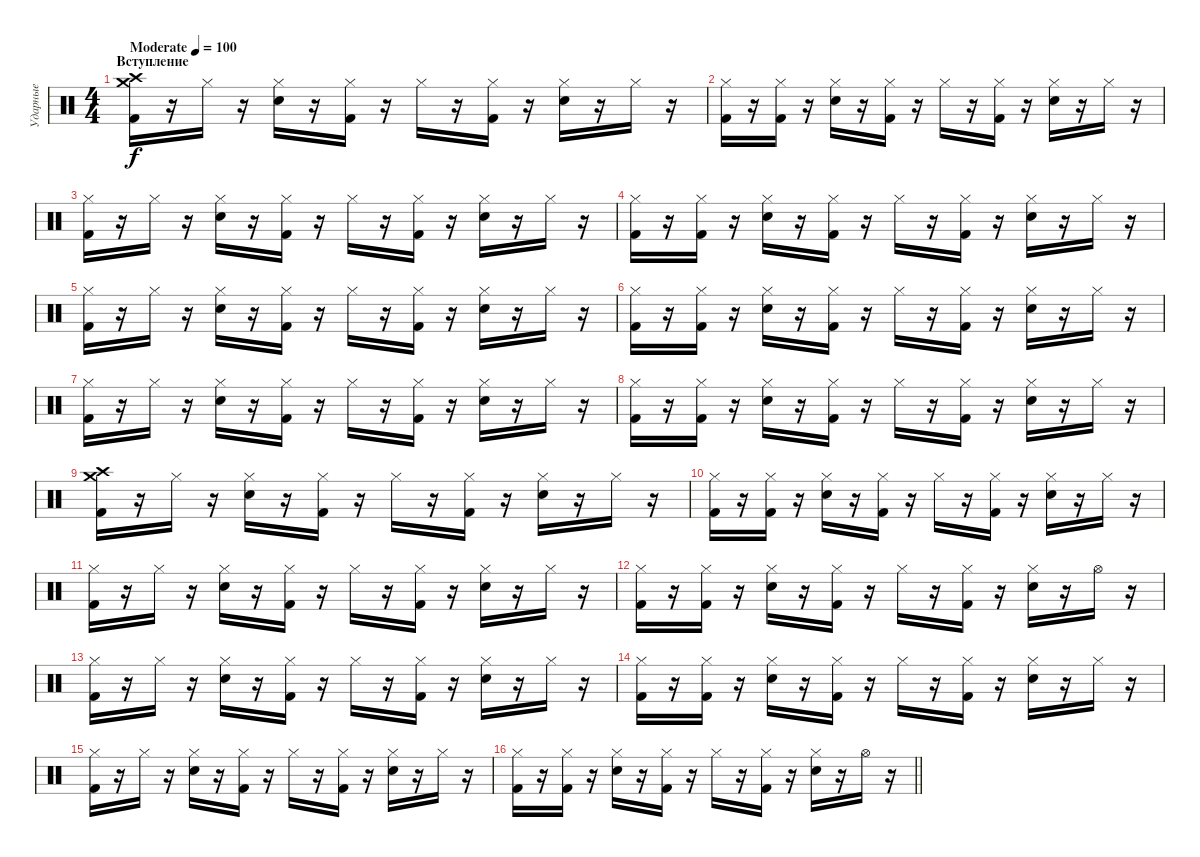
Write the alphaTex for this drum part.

\track ("Ударные" "Ударные") {instrument percussion}
\staff {score}
\articulation defaults
\ts (4 4)
\section ("" "Вступление")
\tempo (100 "Moderate")
\clef neutral
\ks c
("Crash high (hit)" "Crash medium (hit)" "Kick (hit) 2").16{dy f} r.16 "Hi-Hat (closed)".16 r.16 ("Hi-Hat (closed)" "Electric Snare (hit)").16 r.16 ("Hi-Hat (closed)" "Kick (hit) 2").16 r.16 "Hi-Hat (closed)".16 r.16 ("Hi-Hat (closed)" "Kick (hit) 2").16 r.16 ("Hi-Hat (closed)" "Electric Snare (hit)").16 r.16 "Hi-Hat (closed)".16 r.16 |
("Hi-Hat (closed)" "Kick (hit) 2").16 r.16 ("Hi-Hat (closed)" "Kick (hit) 2").16 r.16 ("Hi-Hat (closed)" "Electric Snare (hit)").16 r.16 ("Hi-Hat (closed)" "Kick (hit) 2").16 r.16 "Hi-Hat (closed)".16 r.16 ("Hi-Hat (closed)" "Kick (hit) 2").16 r.16 ("Hi-Hat (closed)" "Electric Snare (hit)").16 r.16 "Hi-Hat (closed)".16 r.16 |
("Hi-Hat (closed)" "Kick (hit) 2").16 r.16 "Hi-Hat (closed)".16 r.16 ("Hi-Hat (closed)" "Electric Snare (hit)").16 r.16 ("Hi-Hat (closed)" "Kick (hit) 2").16 r.16 "Hi-Hat (closed)".16 r.16 ("Hi-Hat (closed)" "Kick (hit) 2").16 r.16 ("Hi-Hat (closed)" "Electric Snare (hit)").16 r.16 "Hi-Hat (closed)".16 r.16 |
("Hi-Hat (closed)" "Kick (hit) 2").16 r.16 ("Hi-Hat (closed)" "Kick (hit) 2").16 r.16 ("Hi-Hat (closed)" "Electric Snare (hit)").16 r.16 ("Hi-Hat (closed)" "Kick (hit) 2").16 r.16 "Hi-Hat (closed)".16 r.16 ("Hi-Hat (closed)" "Kick (hit) 2").16 r.16 ("Hi-Hat (closed)" "Electric Snare (hit)").16 r.16 "Hi-Hat (closed)".16 r.16 |
("Hi-Hat (closed)" "Kick (hit) 2").16 r.16 "Hi-Hat (closed)".16 r.16 ("Hi-Hat (closed)" "Electric Snare (hit)").16 r.16 ("Hi-Hat (closed)" "Kick (hit) 2").16 r.16 "Hi-Hat (closed)".16 r.16 ("Hi-Hat (closed)" "Kick (hit) 2").16 r.16 ("Hi-Hat (closed)" "Electric Snare (hit)").16 r.16 "Hi-Hat (closed)".16 r.16 |
("Hi-Hat (closed)" "Kick (hit) 2").16 r.16 ("Hi-Hat (closed)" "Kick (hit) 2").16 r.16 ("Hi-Hat (closed)" "Electric Snare (hit)").16 r.16 ("Hi-Hat (closed)" "Kick (hit) 2").16 r.16 "Hi-Hat (closed)".16 r.16 ("Hi-Hat (closed)" "Kick (hit) 2").16 r.16 ("Hi-Hat (closed)" "Electric Snare (hit)").16 r.16 "Hi-Hat (closed)".16 r.16 |
("Hi-Hat (closed)" "Kick (hit) 2").16 r.16 "Hi-Hat (closed)".16 r.16 ("Hi-Hat (closed)" "Electric Snare (hit)").16 r.16 ("Hi-Hat (closed)" "Kick (hit) 2").16 r.16 "Hi-Hat (closed)".16 r.16 ("Hi-Hat (closed)" "Kick (hit) 2").16 r.16 ("Hi-Hat (closed)" "Electric Snare (hit)").16 r.16 "Hi-Hat (closed)".16 r.16 |
("Hi-Hat (closed)" "Kick (hit) 2").16 r.16 ("Hi-Hat (closed)" "Kick (hit) 2").16 r.16 ("Hi-Hat (closed)" "Electric Snare (hit)").16 r.16 ("Hi-Hat (closed)" "Kick (hit) 2").16 r.16 "Hi-Hat (closed)".16 r.16 ("Hi-Hat (closed)" "Kick (hit) 2").16 r.16 ("Hi-Hat (closed)" "Electric Snare (hit)").16 r.16 "Hi-Hat (closed)".16 r.16 |
("Crash high (hit)" "Crash medium (hit)" "Kick (hit) 2").16 r.16 "Hi-Hat (closed)".16 r.16 ("Hi-Hat (closed)" "Electric Snare (hit)").16 r.16 ("Hi-Hat (closed)" "Kick (hit) 2").16 r.16 "Hi-Hat (closed)".16 r.16 ("Hi-Hat (closed)" "Kick (hit) 2").16 r.16 ("Hi-Hat (closed)" "Electric Snare (hit)").16 r.16 "Hi-Hat (closed)".16 r.16 |
("Hi-Hat (closed)" "Kick (hit) 2").16 r.16 ("Hi-Hat (closed)" "Kick (hit) 2").16 r.16 ("Hi-Hat (closed)" "Electric Snare (hit)").16 r.16 ("Hi-Hat (closed)" "Kick (hit) 2").16 r.16 "Hi-Hat (closed)".16 r.16 ("Hi-Hat (closed)" "Kick (hit) 2").16 r.16 ("Hi-Hat (closed)" "Electric Snare (hit)").16 r.16 "Hi-Hat (closed)".16 r.16 |
("Hi-Hat (closed)" "Kick (hit) 2").16 r.16 "Hi-Hat (closed)".16 r.16 ("Hi-Hat (closed)" "Electric Snare (hit)").16 r.16 ("Hi-Hat (closed)" "Kick (hit) 2").16 r.16 "Hi-Hat (closed)".16 r.16 ("Hi-Hat (closed)" "Kick (hit) 2").16 r.16 ("Hi-Hat (closed)" "Electric Snare (hit)").16 r.16 "Hi-Hat (closed)".16 r.16 |
("Hi-Hat (closed)" "Kick (hit) 2").16 r.16 ("Hi-Hat (closed)" "Kick (hit) 2").16 r.16 ("Hi-Hat (closed)" "Electric Snare (hit)").16 r.16 ("Hi-Hat (closed)" "Kick (hit) 2").16 r.16 "Hi-Hat (closed)".16 r.16 ("Hi-Hat (closed)" "Kick (hit) 2").16 r.16 ("Hi-Hat (closed)" "Electric Snare (hit)").16 r.16 "Hi-Hat (open)".16 r.16 |
("Hi-Hat (closed)" "Kick (hit) 2").16 r.16 "Hi-Hat (closed)".16 r.16 ("Hi-Hat (closed)" "Electric Snare (hit)").16 r.16 ("Hi-Hat (closed)" "Kick (hit) 2").16 r.16 "Hi-Hat (closed)".16 r.16 ("Hi-Hat (closed)" "Kick (hit) 2").16 r.16 ("Hi-Hat (closed)" "Electric Snare (hit)").16 r.16 "Hi-Hat (closed)".16 r.16 |
("Hi-Hat (closed)" "Kick (hit) 2").16 r.16 ("Hi-Hat (closed)" "Kick (hit) 2").16 r.16 ("Hi-Hat (closed)" "Electric Snare (hit)").16 r.16 ("Hi-Hat (closed)" "Kick (hit) 2").16 r.16 "Hi-Hat (closed)".16 r.16 ("Hi-Hat (closed)" "Kick (hit) 2").16 r.16 ("Hi-Hat (closed)" "Electric Snare (hit)").16 r.16 "Hi-Hat (closed)".16 r.16 |
("Hi-Hat (closed)" "Kick (hit) 2").16 r.16 "Hi-Hat (closed)".16 r.16 ("Hi-Hat (closed)" "Electric Snare (hit)").16 r.16 ("Hi-Hat (closed)" "Kick (hit) 2").16 r.16 "Hi-Hat (closed)".16 r.16 ("Hi-Hat (closed)" "Kick (hit) 2").16 r.16 ("Hi-Hat (closed)" "Electric Snare (hit)").16 r.16 "Hi-Hat (closed)".16 r.16 |
\barLineRight lightlight
("Hi-Hat (closed)" "Kick (hit) 2").16 r.16 ("Hi-Hat (closed)" "Kick (hit) 2").16 r.16 ("Hi-Hat (closed)" "Electric Snare (hit)").16 r.16 ("Hi-Hat (closed)" "Kick (hit) 2").16 r.16 "Hi-Hat (closed)".16 r.16 ("Hi-Hat (closed)" "Kick (hit) 2").16 r.16 ("Hi-Hat (closed)" "Electric Snare (hit)").16 r.16 "Hi-Hat (open)".16 r.16
